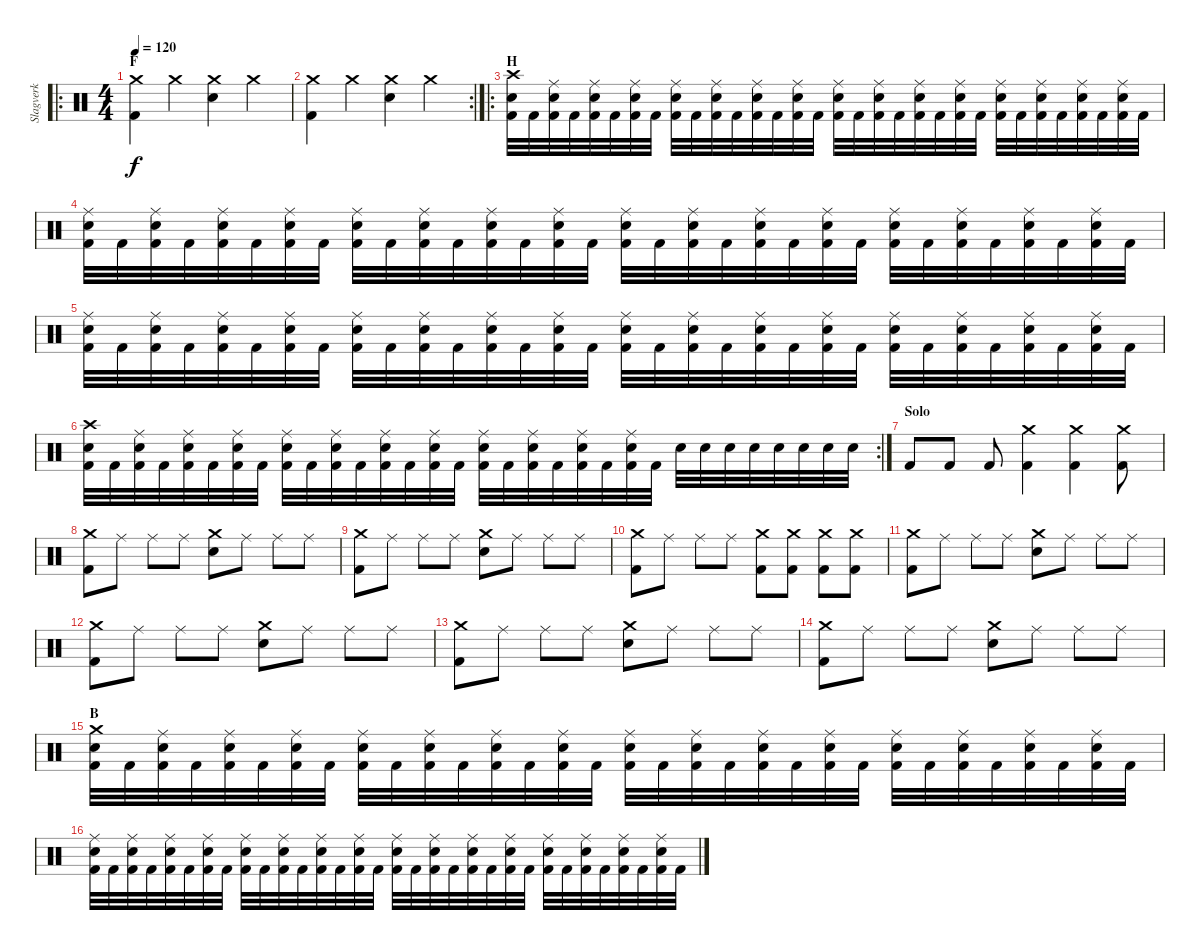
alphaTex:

\track ("Slagverk" "Slagverk") {instrument percussion}
\staff {score}
\articulation defaults
\ro
\ts (4 4)
\section ("" "F")
\tempo 120
\clef neutral
\ks c
("Crash medium (hit)" "Kick (hit) 2").4{dy f} "Crash medium (hit)".4 ("Crash medium (hit)" "Electric Snare (hit)").4 "Crash medium (hit)".4 |
\rc 2
("Crash medium (hit)" "Kick (hit) 2").4 "Crash medium (hit)".4 ("Crash medium (hit)" "Electric Snare (hit)").4 "Crash medium (hit)".4 |
\ro
\section ("" "H")
("Crash high (hit)" "Electric Snare (hit)" "Kick (hit) 2").32 "Kick (hit) 2".32 ("Ride (middle)" "Electric Snare (hit)" "Kick (hit) 2").32 "Kick (hit) 2".32 ("Ride (middle)" "Electric Snare (hit)" "Kick (hit) 2").32 "Kick (hit) 2".32 ("Ride (middle)" "Electric Snare (hit)" "Kick (hit) 2").32 "Kick (hit) 2".32 ("Ride (middle)" "Electric Snare (hit)" "Kick (hit) 2").32 "Kick (hit) 2".32 ("Ride (middle)" "Electric Snare (hit)" "Kick (hit) 2").32 "Kick (hit) 2".32 ("Ride (middle)" "Electric Snare (hit)" "Kick (hit) 2").32 "Kick (hit) 2".32 ("Ride (middle)" "Electric Snare (hit)" "Kick (hit) 2").32 "Kick (hit) 2".32 ("Ride (middle)" "Electric Snare (hit)" "Kick (hit) 2").32 "Kick (hit) 2".32 ("Ride (middle)" "Electric Snare (hit)" "Kick (hit) 2").32 "Kick (hit) 2".32 ("Ride (middle)" "Electric Snare (hit)" "Kick (hit) 2").32 "Kick (hit) 2".32 ("Ride (middle)" "Electric Snare (hit)" "Kick (hit) 2").32 "Kick (hit) 2".32 ("Ride (middle)" "Electric Snare (hit)" "Kick (hit) 2").32 "Kick (hit) 2".32 ("Ride (middle)" "Electric Snare (hit)" "Kick (hit) 2").32 "Kick (hit) 2".32 ("Ride (middle)" "Electric Snare (hit)" "Kick (hit) 2").32 "Kick (hit) 2".32 ("Ride (middle)" "Electric Snare (hit)" "Kick (hit) 2").32 "Kick (hit) 2".32 |
("Ride (middle)" "Electric Snare (hit)" "Kick (hit) 2").32 "Kick (hit) 2".32 ("Ride (middle)" "Electric Snare (hit)" "Kick (hit) 2").32 "Kick (hit) 2".32 ("Ride (middle)" "Electric Snare (hit)" "Kick (hit) 2").32 "Kick (hit) 2".32 ("Ride (middle)" "Electric Snare (hit)" "Kick (hit) 2").32 "Kick (hit) 2".32 ("Ride (middle)" "Electric Snare (hit)" "Kick (hit) 2").32 "Kick (hit) 2".32 ("Ride (middle)" "Electric Snare (hit)" "Kick (hit) 2").32 "Kick (hit) 2".32 ("Ride (middle)" "Electric Snare (hit)" "Kick (hit) 2").32 "Kick (hit) 2".32 ("Ride (middle)" "Electric Snare (hit)" "Kick (hit) 2").32 "Kick (hit) 2".32 ("Ride (middle)" "Electric Snare (hit)" "Kick (hit) 2").32 "Kick (hit) 2".32 ("Ride (middle)" "Electric Snare (hit)" "Kick (hit) 2").32 "Kick (hit) 2".32 ("Ride (middle)" "Electric Snare (hit)" "Kick (hit) 2").32 "Kick (hit) 2".32 ("Ride (middle)" "Electric Snare (hit)" "Kick (hit) 2").32 "Kick (hit) 2".32 ("Ride (middle)" "Electric Snare (hit)" "Kick (hit) 2").32 "Kick (hit) 2".32 ("Ride (middle)" "Electric Snare (hit)" "Kick (hit) 2").32 "Kick (hit) 2".32 ("Ride (middle)" "Electric Snare (hit)" "Kick (hit) 2").32 "Kick (hit) 2".32 ("Ride (middle)" "Electric Snare (hit)" "Kick (hit) 2").32 "Kick (hit) 2".32 |
("Ride (middle)" "Electric Snare (hit)" "Kick (hit) 2").32 "Kick (hit) 2".32 ("Ride (middle)" "Electric Snare (hit)" "Kick (hit) 2").32 "Kick (hit) 2".32 ("Ride (middle)" "Electric Snare (hit)" "Kick (hit) 2").32 "Kick (hit) 2".32 ("Ride (middle)" "Electric Snare (hit)" "Kick (hit) 2").32 "Kick (hit) 2".32 ("Ride (middle)" "Electric Snare (hit)" "Kick (hit) 2").32 "Kick (hit) 2".32 ("Ride (middle)" "Electric Snare (hit)" "Kick (hit) 2").32 "Kick (hit) 2".32 ("Ride (middle)" "Electric Snare (hit)" "Kick (hit) 2").32 "Kick (hit) 2".32 ("Ride (middle)" "Electric Snare (hit)" "Kick (hit) 2").32 "Kick (hit) 2".32 ("Ride (middle)" "Electric Snare (hit)" "Kick (hit) 2").32 "Kick (hit) 2".32 ("Ride (middle)" "Electric Snare (hit)" "Kick (hit) 2").32 "Kick (hit) 2".32 ("Ride (middle)" "Electric Snare (hit)" "Kick (hit) 2").32 "Kick (hit) 2".32 ("Ride (middle)" "Electric Snare (hit)" "Kick (hit) 2").32 "Kick (hit) 2".32 ("Ride (middle)" "Electric Snare (hit)" "Kick (hit) 2").32 "Kick (hit) 2".32 ("Ride (middle)" "Electric Snare (hit)" "Kick (hit) 2").32 "Kick (hit) 2".32 ("Ride (middle)" "Electric Snare (hit)" "Kick (hit) 2").32 "Kick (hit) 2".32 ("Ride (middle)" "Electric Snare (hit)" "Kick (hit) 2").32 "Kick (hit) 2".32 |
\rc 2
("Crash high (hit)" "Electric Snare (hit)" "Kick (hit) 2").32 "Kick (hit) 2".32 ("Ride (middle)" "Electric Snare (hit)" "Kick (hit) 2").32 "Kick (hit) 2".32 ("Ride (middle)" "Electric Snare (hit)" "Kick (hit) 2").32 "Kick (hit) 2".32 ("Ride (middle)" "Electric Snare (hit)" "Kick (hit) 2").32 "Kick (hit) 2".32 ("Ride (middle)" "Electric Snare (hit)" "Kick (hit) 2").32 "Kick (hit) 2".32 ("Ride (middle)" "Electric Snare (hit)" "Kick (hit) 2").32 "Kick (hit) 2".32 ("Ride (middle)" "Electric Snare (hit)" "Kick (hit) 2").32 "Kick (hit) 2".32 ("Ride (middle)" "Electric Snare (hit)" "Kick (hit) 2").32 "Kick (hit) 2".32 ("Ride (middle)" "Electric Snare (hit)" "Kick (hit) 2").32 "Kick (hit) 2".32 ("Ride (middle)" "Electric Snare (hit)" "Kick (hit) 2").32 "Kick (hit) 2".32 ("Ride (middle)" "Electric Snare (hit)" "Kick (hit) 2").32 "Kick (hit) 2".32 ("Ride (middle)" "Electric Snare (hit)" "Kick (hit) 2").32 "Kick (hit) 2".32 "Electric Snare (hit)".32 "Electric Snare (hit)".32 "Electric Snare (hit)".32 "Electric Snare (hit)".32 "Electric Snare (hit)".32 "Electric Snare (hit)".32 "Electric Snare (hit)".32 "Electric Snare (hit)".32 |
\section ("" "Solo")
"Kick (hit) 2".8 "Kick (hit) 2".8 "Kick (hit) 2".8 ("Crash medium (hit)" "Kick (hit) 2").4 ("Crash medium (hit)" "Kick (hit) 2").4 ("Crash medium (hit)" "Kick (hit) 2").8 |
("Crash medium (hit)" "Kick (hit) 2").8 "Ride (middle)".8 "Ride (middle)".8 "Ride (middle)".8 ("Crash medium (hit)" "Electric Snare (hit)").8 "Ride (middle)".8 "Ride (middle)".8 "Ride (middle)".8 |
("Crash medium (hit)" "Kick (hit) 2").8 "Ride (middle)".8 "Ride (middle)".8 "Ride (middle)".8 ("Crash medium (hit)" "Electric Snare (hit)").8 "Ride (middle)".8 "Ride (middle)".8 "Ride (middle)".8 |
("Crash medium (hit)" "Kick (hit) 2").8 "Ride (middle)".8 "Ride (middle)".8 "Ride (middle)".8 ("Crash medium (hit)" "Kick (hit) 2").8 ("Crash medium (hit)" "Kick (hit) 2").8 ("Crash medium (hit)" "Kick (hit) 2").8 ("Crash medium (hit)" "Kick (hit) 2").8 |
("Crash medium (hit)" "Kick (hit) 2").8 "Ride (middle)".8 "Ride (middle)".8 "Ride (middle)".8 ("Crash medium (hit)" "Electric Snare (hit)").8 "Ride (middle)".8 "Ride (middle)".8 "Ride (middle)".8 |
("Crash medium (hit)" "Kick (hit) 2").8 "Ride (middle)".8 "Ride (middle)".8 "Ride (middle)".8 ("Crash medium (hit)" "Electric Snare (hit)").8 "Ride (middle)".8 "Ride (middle)".8 "Ride (middle)".8 |
("Crash medium (hit)" "Kick (hit) 2").8 "Ride (middle)".8 "Ride (middle)".8 "Ride (middle)".8 ("Crash medium (hit)" "Electric Snare (hit)").8 "Ride (middle)".8 "Ride (middle)".8 "Ride (middle)".8 |
("Crash medium (hit)" "Kick (hit) 2").8 "Ride (middle)".8 "Ride (middle)".8 "Ride (middle)".8 ("Crash medium (hit)" "Electric Snare (hit)").8 "Ride (middle)".8 "Ride (middle)".8 "Ride (middle)".8 |
\section ("" "B")
("Crash medium (hit)" "Electric Snare (hit)" "Kick (hit) 2").32 "Kick (hit) 2".32 ("Ride (middle)" "Electric Snare (hit)" "Kick (hit) 2").32 "Kick (hit) 2".32 ("Ride (middle)" "Electric Snare (hit)" "Kick (hit) 2").32 "Kick (hit) 2".32 ("Ride (middle)" "Electric Snare (hit)" "Kick (hit) 2").32 "Kick (hit) 2".32 ("Ride (middle)" "Electric Snare (hit)" "Kick (hit) 2").32 "Kick (hit) 2".32 ("Ride (middle)" "Electric Snare (hit)" "Kick (hit) 2").32 "Kick (hit) 2".32 ("Ride (middle)" "Electric Snare (hit)" "Kick (hit) 2").32 "Kick (hit) 2".32 ("Ride (middle)" "Electric Snare (hit)" "Kick (hit) 2").32 "Kick (hit) 2".32 ("Ride (middle)" "Electric Snare (hit)" "Kick (hit) 2").32 "Kick (hit) 2".32 ("Ride (middle)" "Electric Snare (hit)" "Kick (hit) 2").32 "Kick (hit) 2".32 ("Ride (middle)" "Electric Snare (hit)" "Kick (hit) 2").32 "Kick (hit) 2".32 ("Ride (middle)" "Electric Snare (hit)" "Kick (hit) 2").32 "Kick (hit) 2".32 ("Ride (middle)" "Electric Snare (hit)" "Kick (hit) 2").32 "Kick (hit) 2".32 ("Ride (middle)" "Electric Snare (hit)" "Kick (hit) 2").32 "Kick (hit) 2".32 ("Ride (middle)" "Electric Snare (hit)" "Kick (hit) 2").32 "Kick (hit) 2".32 ("Ride (middle)" "Electric Snare (hit)" "Kick (hit) 2").32 "Kick (hit) 2".32 |
("Ride (middle)" "Electric Snare (hit)" "Kick (hit) 2").32 "Kick (hit) 2".32 ("Ride (middle)" "Electric Snare (hit)" "Kick (hit) 2").32 "Kick (hit) 2".32 ("Ride (middle)" "Electric Snare (hit)" "Kick (hit) 2").32 "Kick (hit) 2".32 ("Ride (middle)" "Electric Snare (hit)" "Kick (hit) 2").32 "Kick (hit) 2".32 ("Ride (middle)" "Electric Snare (hit)" "Kick (hit) 2").32 "Kick (hit) 2".32 ("Ride (middle)" "Electric Snare (hit)" "Kick (hit) 2").32 "Kick (hit) 2".32 ("Ride (middle)" "Electric Snare (hit)" "Kick (hit) 2").32 "Kick (hit) 2".32 ("Ride (middle)" "Electric Snare (hit)" "Kick (hit) 2").32 "Kick (hit) 2".32 ("Ride (middle)" "Electric Snare (hit)" "Kick (hit) 2").32 "Kick (hit) 2".32 ("Ride (middle)" "Electric Snare (hit)" "Kick (hit) 2").32 "Kick (hit) 2".32 ("Ride (middle)" "Electric Snare (hit)" "Kick (hit) 2").32 "Kick (hit) 2".32 ("Ride (middle)" "Electric Snare (hit)" "Kick (hit) 2").32 "Kick (hit) 2".32 ("Ride (middle)" "Electric Snare (hit)" "Kick (hit) 2").32 "Kick (hit) 2".32 ("Ride (middle)" "Electric Snare (hit)" "Kick (hit) 2").32 "Kick (hit) 2".32 ("Ride (middle)" "Electric Snare (hit)" "Kick (hit) 2").32 "Kick (hit) 2".32 ("Ride (middle)" "Electric Snare (hit)" "Kick (hit) 2").32 "Kick (hit) 2".32
